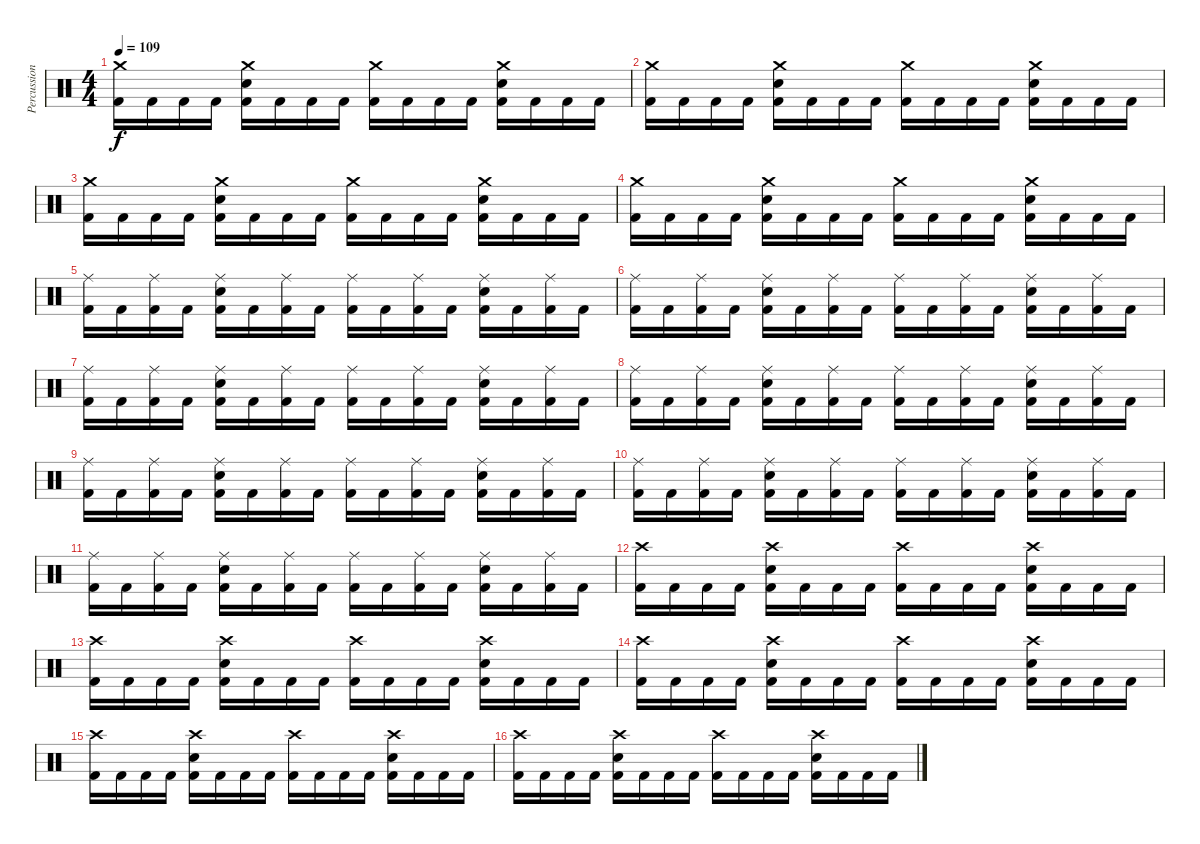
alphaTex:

\track ("Percussion" "Percussion") {instrument percussion}
\staff {score}
\articulation defaults
\ts (4 4)
\tempo 109
\clef neutral
\ks c
("Crash medium (hit)" "Kick (hit) 2").16{dy f} "Kick (hit) 2".16 "Kick (hit) 2".16 "Kick (hit) 2".16 ("Crash medium (hit)" "Electric Snare (hit)" "Kick (hit) 2").16 "Kick (hit) 2".16 "Kick (hit) 2".16 "Kick (hit) 2".16 ("Crash medium (hit)" "Kick (hit) 2").16 "Kick (hit) 2".16 "Kick (hit) 2".16 "Kick (hit) 2".16 ("Crash medium (hit)" "Electric Snare (hit)" "Kick (hit) 2").16 "Kick (hit) 2".16 "Kick (hit) 2".16 "Kick (hit) 2".16 |
("Crash medium (hit)" "Kick (hit) 2").16 "Kick (hit) 2".16 "Kick (hit) 2".16 "Kick (hit) 2".16 ("Crash medium (hit)" "Electric Snare (hit)" "Kick (hit) 2").16 "Kick (hit) 2".16 "Kick (hit) 2".16 "Kick (hit) 2".16 ("Crash medium (hit)" "Kick (hit) 2").16 "Kick (hit) 2".16 "Kick (hit) 2".16 "Kick (hit) 2".16 ("Crash medium (hit)" "Electric Snare (hit)" "Kick (hit) 2").16 "Kick (hit) 2".16 "Kick (hit) 2".16 "Kick (hit) 2".16 |
("Crash medium (hit)" "Kick (hit) 2").16 "Kick (hit) 2".16 "Kick (hit) 2".16 "Kick (hit) 2".16 ("Crash medium (hit)" "Electric Snare (hit)" "Kick (hit) 2").16 "Kick (hit) 2".16 "Kick (hit) 2".16 "Kick (hit) 2".16 ("Crash medium (hit)" "Kick (hit) 2").16 "Kick (hit) 2".16 "Kick (hit) 2".16 "Kick (hit) 2".16 ("Crash medium (hit)" "Electric Snare (hit)" "Kick (hit) 2").16 "Kick (hit) 2".16 "Kick (hit) 2".16 "Kick (hit) 2".16 |
("Crash medium (hit)" "Kick (hit) 2").16 "Kick (hit) 2".16 "Kick (hit) 2".16 "Kick (hit) 2".16 ("Crash medium (hit)" "Electric Snare (hit)" "Kick (hit) 2").16 "Kick (hit) 2".16 "Kick (hit) 2".16 "Kick (hit) 2".16 ("Crash medium (hit)" "Kick (hit) 2").16 "Kick (hit) 2".16 "Kick (hit) 2".16 "Kick (hit) 2".16 ("Crash medium (hit)" "Electric Snare (hit)" "Kick (hit) 2").16 "Kick (hit) 2".16 "Kick (hit) 2".16 "Kick (hit) 2".16 |
("Ride (middle)" "Kick (hit) 2").16 "Kick (hit) 2".16 ("Ride (middle)" "Kick (hit) 2").16 "Kick (hit) 2".16 ("Ride (middle)" "Electric Snare (hit)" "Kick (hit) 2").16 "Kick (hit) 2".16 ("Ride (middle)" "Kick (hit) 2").16 "Kick (hit) 2".16 ("Ride (middle)" "Kick (hit) 2").16 "Kick (hit) 2".16 ("Ride (middle)" "Kick (hit) 2").16 "Kick (hit) 2".16 ("Ride (middle)" "Electric Snare (hit)" "Kick (hit) 2").16 "Kick (hit) 2".16 ("Ride (middle)" "Kick (hit) 2").16 "Kick (hit) 2".16 |
("Ride (middle)" "Kick (hit) 2").16 "Kick (hit) 2".16 ("Ride (middle)" "Kick (hit) 2").16 "Kick (hit) 2".16 ("Ride (middle)" "Electric Snare (hit)" "Kick (hit) 2").16 "Kick (hit) 2".16 ("Ride (middle)" "Kick (hit) 2").16 "Kick (hit) 2".16 ("Ride (middle)" "Kick (hit) 2").16 "Kick (hit) 2".16 ("Ride (middle)" "Kick (hit) 2").16 "Kick (hit) 2".16 ("Ride (middle)" "Electric Snare (hit)" "Kick (hit) 2").16 "Kick (hit) 2".16 ("Ride (middle)" "Kick (hit) 2").16 "Kick (hit) 2".16 |
("Ride (middle)" "Kick (hit) 2").16 "Kick (hit) 2".16 ("Ride (middle)" "Kick (hit) 2").16 "Kick (hit) 2".16 ("Ride (middle)" "Electric Snare (hit)" "Kick (hit) 2").16 "Kick (hit) 2".16 ("Ride (middle)" "Kick (hit) 2").16 "Kick (hit) 2".16 ("Ride (middle)" "Kick (hit) 2").16 "Kick (hit) 2".16 ("Ride (middle)" "Kick (hit) 2").16 "Kick (hit) 2".16 ("Ride (middle)" "Electric Snare (hit)" "Kick (hit) 2").16 "Kick (hit) 2".16 ("Ride (middle)" "Kick (hit) 2").16 "Kick (hit) 2".16 |
("Ride (middle)" "Kick (hit) 2").16 "Kick (hit) 2".16 ("Ride (middle)" "Kick (hit) 2").16 "Kick (hit) 2".16 ("Ride (middle)" "Electric Snare (hit)" "Kick (hit) 2").16 "Kick (hit) 2".16 ("Ride (middle)" "Kick (hit) 2").16 "Kick (hit) 2".16 ("Ride (middle)" "Kick (hit) 2").16 "Kick (hit) 2".16 ("Ride (middle)" "Kick (hit) 2").16 "Kick (hit) 2".16 ("Ride (middle)" "Electric Snare (hit)" "Kick (hit) 2").16 "Kick (hit) 2".16 ("Ride (middle)" "Kick (hit) 2").16 "Kick (hit) 2".16 |
("Ride (middle)" "Kick (hit) 2").16 "Kick (hit) 2".16 ("Ride (middle)" "Kick (hit) 2").16 "Kick (hit) 2".16 ("Ride (middle)" "Electric Snare (hit)" "Kick (hit) 2").16 "Kick (hit) 2".16 ("Ride (middle)" "Kick (hit) 2").16 "Kick (hit) 2".16 ("Ride (middle)" "Kick (hit) 2").16 "Kick (hit) 2".16 ("Ride (middle)" "Kick (hit) 2").16 "Kick (hit) 2".16 ("Ride (middle)" "Electric Snare (hit)" "Kick (hit) 2").16 "Kick (hit) 2".16 ("Ride (middle)" "Kick (hit) 2").16 "Kick (hit) 2".16 |
("Ride (middle)" "Kick (hit) 2").16 "Kick (hit) 2".16 ("Ride (middle)" "Kick (hit) 2").16 "Kick (hit) 2".16 ("Ride (middle)" "Electric Snare (hit)" "Kick (hit) 2").16 "Kick (hit) 2".16 ("Ride (middle)" "Kick (hit) 2").16 "Kick (hit) 2".16 ("Ride (middle)" "Kick (hit) 2").16 "Kick (hit) 2".16 ("Ride (middle)" "Kick (hit) 2").16 "Kick (hit) 2".16 ("Ride (middle)" "Electric Snare (hit)" "Kick (hit) 2").16 "Kick (hit) 2".16 ("Ride (middle)" "Kick (hit) 2").16 "Kick (hit) 2".16 |
("Ride (middle)" "Kick (hit) 2").16 "Kick (hit) 2".16 ("Ride (middle)" "Kick (hit) 2").16 "Kick (hit) 2".16 ("Ride (middle)" "Electric Snare (hit)" "Kick (hit) 2").16 "Kick (hit) 2".16 ("Ride (middle)" "Kick (hit) 2").16 "Kick (hit) 2".16 ("Ride (middle)" "Kick (hit) 2").16 "Kick (hit) 2".16 ("Ride (middle)" "Kick (hit) 2").16 "Kick (hit) 2".16 ("Ride (middle)" "Electric Snare (hit)" "Kick (hit) 2").16 "Kick (hit) 2".16 ("Ride (middle)" "Kick (hit) 2").16 "Kick (hit) 2".16 |
("Crash high (hit)" "Kick (hit) 2").16 "Kick (hit) 2".16 "Kick (hit) 2".16 "Kick (hit) 2".16 ("Crash high (hit)" "Electric Snare (hit)" "Kick (hit) 2").16 "Kick (hit) 2".16 "Kick (hit) 2".16 "Kick (hit) 2".16 ("Crash high (hit)" "Kick (hit) 2").16 "Kick (hit) 2".16 "Kick (hit) 2".16 "Kick (hit) 2".16 ("Crash high (hit)" "Electric Snare (hit)" "Kick (hit) 2").16 "Kick (hit) 2".16 "Kick (hit) 2".16 "Kick (hit) 2".16 |
("Crash high (hit)" "Kick (hit) 2").16 "Kick (hit) 2".16 "Kick (hit) 2".16 "Kick (hit) 2".16 ("Crash high (hit)" "Electric Snare (hit)" "Kick (hit) 2").16 "Kick (hit) 2".16 "Kick (hit) 2".16 "Kick (hit) 2".16 ("Crash high (hit)" "Kick (hit) 2").16 "Kick (hit) 2".16 "Kick (hit) 2".16 "Kick (hit) 2".16 ("Crash high (hit)" "Electric Snare (hit)" "Kick (hit) 2").16 "Kick (hit) 2".16 "Kick (hit) 2".16 "Kick (hit) 2".16 |
("Crash high (hit)" "Kick (hit) 2").16 "Kick (hit) 2".16 "Kick (hit) 2".16 "Kick (hit) 2".16 ("Crash high (hit)" "Electric Snare (hit)" "Kick (hit) 2").16 "Kick (hit) 2".16 "Kick (hit) 2".16 "Kick (hit) 2".16 ("Crash high (hit)" "Kick (hit) 2").16 "Kick (hit) 2".16 "Kick (hit) 2".16 "Kick (hit) 2".16 ("Crash high (hit)" "Electric Snare (hit)" "Kick (hit) 2").16 "Kick (hit) 2".16 "Kick (hit) 2".16 "Kick (hit) 2".16 |
("Crash high (hit)" "Kick (hit) 2").16 "Kick (hit) 2".16 "Kick (hit) 2".16 "Kick (hit) 2".16 ("Crash high (hit)" "Electric Snare (hit)" "Kick (hit) 2").16 "Kick (hit) 2".16 "Kick (hit) 2".16 "Kick (hit) 2".16 ("Crash high (hit)" "Kick (hit) 2").16 "Kick (hit) 2".16 "Kick (hit) 2".16 "Kick (hit) 2".16 ("Crash high (hit)" "Electric Snare (hit)" "Kick (hit) 2").16 "Kick (hit) 2".16 "Kick (hit) 2".16 "Kick (hit) 2".16 |
("Crash high (hit)" "Kick (hit) 2").16 "Kick (hit) 2".16 "Kick (hit) 2".16 "Kick (hit) 2".16 ("Crash high (hit)" "Electric Snare (hit)" "Kick (hit) 2").16 "Kick (hit) 2".16 "Kick (hit) 2".16 "Kick (hit) 2".16 ("Crash high (hit)" "Kick (hit) 2").16 "Kick (hit) 2".16 "Kick (hit) 2".16 "Kick (hit) 2".16 ("Crash high (hit)" "Electric Snare (hit)" "Kick (hit) 2").16 "Kick (hit) 2".16 "Kick (hit) 2".16 "Kick (hit) 2".16
